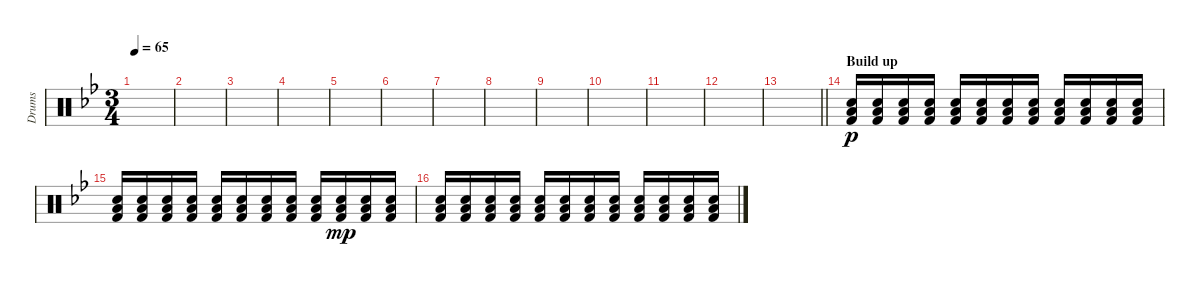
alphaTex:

\track ("Drums" "Drums") {instrument percussion}
\staff {score}
\articulation defaults
\ts (3 4)
\tempo 65
\clef neutral
\ks bb
|
|
|
|
|
|
|
|
|
|
|
|
\barLineRight lightlight
|
\section ("" "Build up")
("Kick (hit) 2" "Electric Snare (hit)" "Low Tom (hit)").16{dy p} ("Kick (hit) 2" "Electric Snare (hit)" "Low Tom (hit)").16 ("Kick (hit) 2" "Electric Snare (hit)" "Low Tom (hit)").16 ("Kick (hit) 2" "Electric Snare (hit)" "Low Tom (hit)").16 ("Kick (hit) 2" "Electric Snare (hit)" "Low Tom (hit)").16 ("Kick (hit) 2" "Electric Snare (hit)" "Low Tom (hit)").16 ("Kick (hit) 2" "Electric Snare (hit)" "Low Tom (hit)").16 ("Kick (hit) 2" "Electric Snare (hit)" "Low Tom (hit)").16 ("Kick (hit) 2" "Electric Snare (hit)" "Low Tom (hit)").16 ("Kick (hit) 2" "Electric Snare (hit)" "Low Tom (hit)").16 ("Kick (hit) 2" "Electric Snare (hit)" "Low Tom (hit)").16 ("Kick (hit) 2" "Electric Snare (hit)" "Low Tom (hit)").16 |
("Kick (hit) 2" "Electric Snare (hit)" "Low Tom (hit)").16 ("Kick (hit) 2" "Electric Snare (hit)" "Low Tom (hit)").16 ("Kick (hit) 2" "Electric Snare (hit)" "Low Tom (hit)").16 ("Kick (hit) 2" "Electric Snare (hit)" "Low Tom (hit)").16 ("Kick (hit) 2" "Electric Snare (hit)" "Low Tom (hit)").16 ("Kick (hit) 2" "Electric Snare (hit)" "Low Tom (hit)").16 ("Kick (hit) 2" "Electric Snare (hit)" "Low Tom (hit)").16 ("Kick (hit) 2" "Electric Snare (hit)" "Low Tom (hit)").16 ("Kick (hit) 2" "Electric Snare (hit)" "Low Tom (hit)").16 ("Kick (hit) 2" "Electric Snare (hit)" "Low Tom (hit)").16{dy mp} ("Kick (hit) 2" "Electric Snare (hit)" "Low Tom (hit)").16 ("Kick (hit) 2" "Electric Snare (hit)" "Low Tom (hit)").16 |
("Kick (hit) 2" "Electric Snare (hit)" "Low Tom (hit)").16 ("Kick (hit) 2" "Electric Snare (hit)" "Low Tom (hit)").16 ("Kick (hit) 2" "Electric Snare (hit)" "Low Tom (hit)").16 ("Kick (hit) 2" "Electric Snare (hit)" "Low Tom (hit)").16 ("Kick (hit) 2" "Electric Snare (hit)" "Low Tom (hit)").16 ("Kick (hit) 2" "Electric Snare (hit)" "Low Tom (hit)").16 ("Kick (hit) 2" "Electric Snare (hit)" "Low Tom (hit)").16 ("Kick (hit) 2" "Electric Snare (hit)" "Low Tom (hit)").16 ("Kick (hit) 2" "Electric Snare (hit)" "Low Tom (hit)").16 ("Kick (hit) 2" "Electric Snare (hit)" "Low Tom (hit)").16 ("Kick (hit) 2" "Electric Snare (hit)" "Low Tom (hit)").16 ("Kick (hit) 2" "Electric Snare (hit)" "Low Tom (hit)").16
